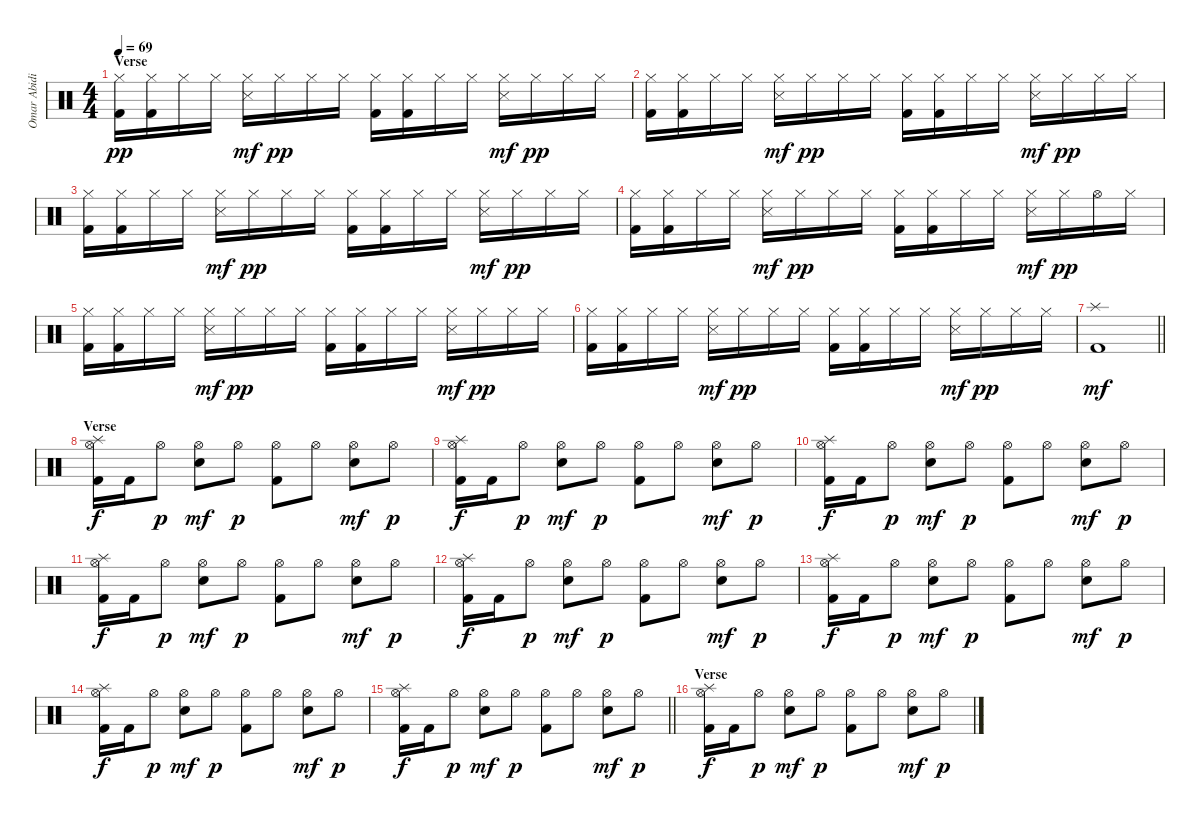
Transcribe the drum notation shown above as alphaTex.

\track ("Omar Abidi" "Omar Abidi") {instrument percussion}
\staff {score}
\articulation defaults
\ts (4 4)
\section ("" "Verse")
\tempo 69
\clef neutral
\ks c
("Hi-Hat (closed)" "Kick (hit) 2").16{dy pp} ("Hi-Hat (closed)" "Kick (hit) 2").16 "Hi-Hat (closed)".16 "Hi-Hat (closed)".16 ("Hi-Hat (closed)" "Snare (side stick) 3").16{dy mf} "Hi-Hat (closed)".16{dy pp} "Hi-Hat (closed)".16 "Hi-Hat (closed)".16 ("Hi-Hat (closed)" "Kick (hit) 2").16 ("Hi-Hat (closed)" "Kick (hit) 2").16 "Hi-Hat (closed)".16 "Hi-Hat (closed)".16 ("Hi-Hat (closed)" "Snare (side stick) 3").16{dy mf} "Hi-Hat (closed)".16{dy pp} "Hi-Hat (closed)".16 "Hi-Hat (closed)".16 |
("Hi-Hat (closed)" "Kick (hit) 2").16 ("Hi-Hat (closed)" "Kick (hit) 2").16 "Hi-Hat (closed)".16 "Hi-Hat (closed)".16 ("Hi-Hat (closed)" "Snare (side stick) 3").16{dy mf} "Hi-Hat (closed)".16{dy pp} "Hi-Hat (closed)".16 "Hi-Hat (closed)".16 ("Hi-Hat (closed)" "Kick (hit) 2").16 ("Hi-Hat (closed)" "Kick (hit) 2").16 "Hi-Hat (closed)".16 "Hi-Hat (closed)".16 ("Hi-Hat (closed)" "Snare (side stick) 3").16{dy mf} "Hi-Hat (closed)".16{dy pp} "Hi-Hat (closed)".16 "Hi-Hat (closed)".16 |
("Hi-Hat (closed)" "Kick (hit) 2").16 ("Hi-Hat (closed)" "Kick (hit) 2").16 "Hi-Hat (closed)".16 "Hi-Hat (closed)".16 ("Hi-Hat (closed)" "Snare (side stick) 3").16{dy mf} "Hi-Hat (closed)".16{dy pp} "Hi-Hat (closed)".16 "Hi-Hat (closed)".16 ("Hi-Hat (closed)" "Kick (hit) 2").16 ("Hi-Hat (closed)" "Kick (hit) 2").16 "Hi-Hat (closed)".16 "Hi-Hat (closed)".16 ("Hi-Hat (closed)" "Snare (side stick) 3").16{dy mf} "Hi-Hat (closed)".16{dy pp} "Hi-Hat (closed)".16 "Hi-Hat (closed)".16 |
("Hi-Hat (closed)" "Kick (hit) 2").16 ("Hi-Hat (closed)" "Kick (hit) 2").16 "Hi-Hat (closed)".16 "Hi-Hat (closed)".16 ("Hi-Hat (closed)" "Snare (side stick) 3").16{dy mf} "Hi-Hat (closed)".16{dy pp} "Hi-Hat (closed)".16 "Hi-Hat (closed)".16 ("Hi-Hat (closed)" "Kick (hit) 2").16 ("Hi-Hat (closed)" "Kick (hit) 2").16 "Hi-Hat (closed)".16 "Hi-Hat (closed)".16 ("Hi-Hat (closed)" "Snare (side stick) 3").16{dy mf} "Hi-Hat (closed)".16{dy pp} "Hi-Hat (open)".16 "Hi-Hat (closed)".16 |
("Hi-Hat (closed)" "Kick (hit) 2").16 ("Hi-Hat (closed)" "Kick (hit) 2").16 "Hi-Hat (closed)".16 "Hi-Hat (closed)".16 ("Hi-Hat (closed)" "Snare (side stick) 3").16{dy mf} "Hi-Hat (closed)".16{dy pp} "Hi-Hat (closed)".16 "Hi-Hat (closed)".16 ("Hi-Hat (closed)" "Kick (hit) 2").16 ("Hi-Hat (closed)" "Kick (hit) 2").16 "Hi-Hat (closed)".16 "Hi-Hat (closed)".16 ("Hi-Hat (closed)" "Snare (side stick) 3").16{dy mf} "Hi-Hat (closed)".16{dy pp} "Hi-Hat (closed)".16 "Hi-Hat (closed)".16 |
("Hi-Hat (closed)" "Kick (hit) 2").16 ("Hi-Hat (closed)" "Kick (hit) 2").16 "Hi-Hat (closed)".16 "Hi-Hat (closed)".16 ("Hi-Hat (closed)" "Snare (side stick) 3").16{dy mf} "Hi-Hat (closed)".16{dy pp} "Hi-Hat (closed)".16 "Hi-Hat (closed)".16 ("Hi-Hat (closed)" "Kick (hit) 2").16 ("Hi-Hat (closed)" "Kick (hit) 2").16 "Hi-Hat (closed)".16 "Hi-Hat (closed)".16 ("Hi-Hat (closed)" "Snare (side stick) 3").16{dy mf} "Hi-Hat (closed)".16{dy pp} "Hi-Hat (closed)".16 "Hi-Hat (closed)".16 |
\barLineRight lightlight
("Splash (hit)" "Kick (hit) 2").1{dy mf} |
\section ("" "Verse")
("Splash (hit)" "Hi-Hat (open)" "Kick (hit) 2").16{dy f} "Kick (hit) 2".16 "Hi-Hat (open)".8{dy p} ("Hi-Hat (open)" "Electric Snare (hit)").8{dy mf} "Hi-Hat (open)".8{dy p} ("Hi-Hat (open)" "Kick (hit) 2").8 "Hi-Hat (open)".8 ("Hi-Hat (open)" "Electric Snare (hit)").8{dy mf} "Hi-Hat (open)".8{dy p} |
("Splash (hit)" "Hi-Hat (open)" "Kick (hit) 2").16{dy f} "Kick (hit) 2".16 "Hi-Hat (open)".8{dy p} ("Hi-Hat (open)" "Electric Snare (hit)").8{dy mf} "Hi-Hat (open)".8{dy p} ("Hi-Hat (open)" "Kick (hit) 2").8 "Hi-Hat (open)".8 ("Hi-Hat (open)" "Electric Snare (hit)").8{dy mf} "Hi-Hat (open)".8{dy p} |
("Splash (hit)" "Hi-Hat (open)" "Kick (hit) 2").16{dy f} "Kick (hit) 2".16 "Hi-Hat (open)".8{dy p} ("Hi-Hat (open)" "Electric Snare (hit)").8{dy mf} "Hi-Hat (open)".8{dy p} ("Hi-Hat (open)" "Kick (hit) 2").8 "Hi-Hat (open)".8 ("Hi-Hat (open)" "Electric Snare (hit)").8{dy mf} "Hi-Hat (open)".8{dy p} |
("Splash (hit)" "Hi-Hat (open)" "Kick (hit) 2").16{dy f} "Kick (hit) 2".16 "Hi-Hat (open)".8{dy p} ("Hi-Hat (open)" "Electric Snare (hit)").8{dy mf} "Hi-Hat (open)".8{dy p} ("Hi-Hat (open)" "Kick (hit) 2").8 "Hi-Hat (open)".8 ("Hi-Hat (open)" "Electric Snare (hit)").8{dy mf} "Hi-Hat (open)".8{dy p} |
("Splash (hit)" "Hi-Hat (open)" "Kick (hit) 2").16{dy f} "Kick (hit) 2".16 "Hi-Hat (open)".8{dy p} ("Hi-Hat (open)" "Electric Snare (hit)").8{dy mf} "Hi-Hat (open)".8{dy p} ("Hi-Hat (open)" "Kick (hit) 2").8 "Hi-Hat (open)".8 ("Hi-Hat (open)" "Electric Snare (hit)").8{dy mf} "Hi-Hat (open)".8{dy p} |
("Splash (hit)" "Hi-Hat (open)" "Kick (hit) 2").16{dy f} "Kick (hit) 2".16 "Hi-Hat (open)".8{dy p} ("Hi-Hat (open)" "Electric Snare (hit)").8{dy mf} "Hi-Hat (open)".8{dy p} ("Hi-Hat (open)" "Kick (hit) 2").8 "Hi-Hat (open)".8 ("Hi-Hat (open)" "Electric Snare (hit)").8{dy mf} "Hi-Hat (open)".8{dy p} |
("Splash (hit)" "Hi-Hat (open)" "Kick (hit) 2").16{dy f} "Kick (hit) 2".16 "Hi-Hat (open)".8{dy p} ("Hi-Hat (open)" "Electric Snare (hit)").8{dy mf} "Hi-Hat (open)".8{dy p} ("Hi-Hat (open)" "Kick (hit) 2").8 "Hi-Hat (open)".8 ("Hi-Hat (open)" "Electric Snare (hit)").8{dy mf} "Hi-Hat (open)".8{dy p} |
\barLineRight lightlight
("Splash (hit)" "Hi-Hat (open)" "Kick (hit) 2").16{dy f} "Kick (hit) 2".16 "Hi-Hat (open)".8{dy p} ("Hi-Hat (open)" "Electric Snare (hit)").8{dy mf} "Hi-Hat (open)".8{dy p} ("Hi-Hat (open)" "Kick (hit) 2").8 "Hi-Hat (open)".8 ("Hi-Hat (open)" "Electric Snare (hit)").8{dy mf} "Hi-Hat (open)".8{dy p} |
\section ("" "Verse")
("Splash (hit)" "Hi-Hat (open)" "Kick (hit) 2").16{dy f} "Kick (hit) 2".16 "Hi-Hat (open)".8{dy p} ("Hi-Hat (open)" "Electric Snare (hit)").8{dy mf} "Hi-Hat (open)".8{dy p} ("Hi-Hat (open)" "Kick (hit) 2").8 "Hi-Hat (open)".8 ("Hi-Hat (open)" "Electric Snare (hit)").8{dy mf} "Hi-Hat (open)".8{dy p}
